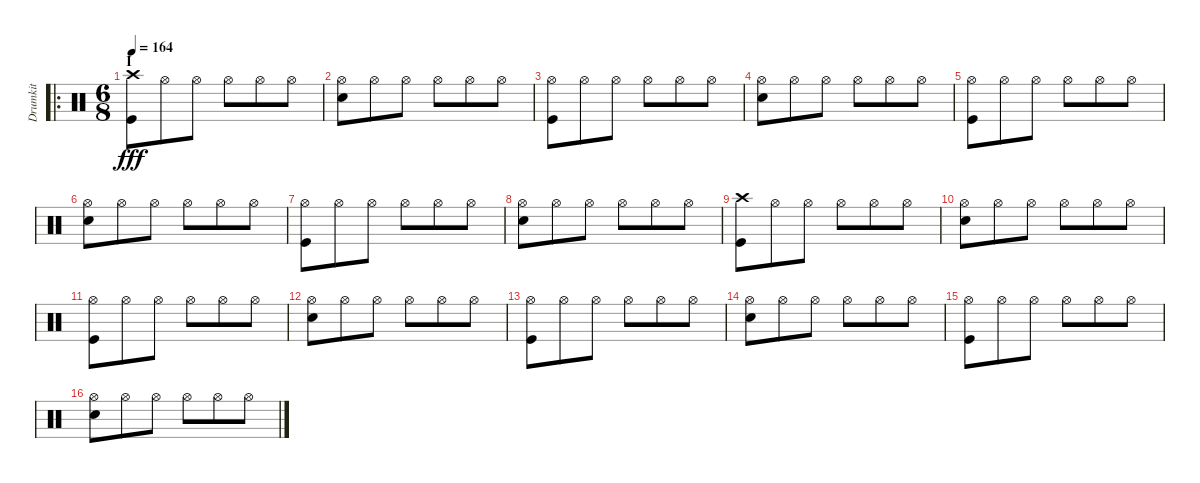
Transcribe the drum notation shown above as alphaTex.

\track ("Drumkit" "Drumkit") {instrument percussion}
\staff {score}
\articulation defaults
\ro
\ts (6 8)
\section ("" "I")
\tempo 164
\clef neutral
\ks c
("Kick (hit)" "Crash high (hit)").8{dy fff} "Hi-Hat (open)".8 "Hi-Hat (open)".8 "Hi-Hat (open)".8 "Hi-Hat (open)".8 "Hi-Hat (open)".8 |
("Hi-Hat (open)" "Snare (hit) 2").8 "Hi-Hat (open)".8 "Hi-Hat (open)".8 "Hi-Hat (open)".8 "Hi-Hat (open)".8 "Hi-Hat (open)".8 |
("Hi-Hat (open)" "Kick (hit)").8 "Hi-Hat (open)".8 "Hi-Hat (open)".8 "Hi-Hat (open)".8 "Hi-Hat (open)".8 "Hi-Hat (open)".8 |
("Hi-Hat (open)" "Snare (hit) 2").8 "Hi-Hat (open)".8 "Hi-Hat (open)".8 "Hi-Hat (open)".8 "Hi-Hat (open)".8 "Hi-Hat (open)".8 |
("Hi-Hat (open)" "Kick (hit)").8 "Hi-Hat (open)".8 "Hi-Hat (open)".8 "Hi-Hat (open)".8 "Hi-Hat (open)".8 "Hi-Hat (open)".8 |
("Hi-Hat (open)" "Snare (hit) 2").8 "Hi-Hat (open)".8 "Hi-Hat (open)".8 "Hi-Hat (open)".8 "Hi-Hat (open)".8 "Hi-Hat (open)".8 |
("Hi-Hat (open)" "Kick (hit)").8 "Hi-Hat (open)".8 "Hi-Hat (open)".8 "Hi-Hat (open)".8 "Hi-Hat (open)".8 "Hi-Hat (open)".8 |
("Hi-Hat (open)" "Snare (hit) 2").8 "Hi-Hat (open)".8 "Hi-Hat (open)".8 "Hi-Hat (open)".8 "Hi-Hat (open)".8 "Hi-Hat (open)".8 |
("Kick (hit)" "Crash high (hit)").8 "Hi-Hat (open)".8 "Hi-Hat (open)".8 "Hi-Hat (open)".8 "Hi-Hat (open)".8 "Hi-Hat (open)".8 |
("Hi-Hat (open)" "Snare (hit) 2").8 "Hi-Hat (open)".8 "Hi-Hat (open)".8 "Hi-Hat (open)".8 "Hi-Hat (open)".8 "Hi-Hat (open)".8 |
("Hi-Hat (open)" "Kick (hit)").8 "Hi-Hat (open)".8 "Hi-Hat (open)".8 "Hi-Hat (open)".8 "Hi-Hat (open)".8 "Hi-Hat (open)".8 |
("Hi-Hat (open)" "Snare (hit) 2").8 "Hi-Hat (open)".8 "Hi-Hat (open)".8 "Hi-Hat (open)".8 "Hi-Hat (open)".8 "Hi-Hat (open)".8 |
("Hi-Hat (open)" "Kick (hit)").8 "Hi-Hat (open)".8 "Hi-Hat (open)".8 "Hi-Hat (open)".8 "Hi-Hat (open)".8 "Hi-Hat (open)".8 |
("Hi-Hat (open)" "Snare (hit) 2").8 "Hi-Hat (open)".8 "Hi-Hat (open)".8 "Hi-Hat (open)".8 "Hi-Hat (open)".8 "Hi-Hat (open)".8 |
("Hi-Hat (open)" "Kick (hit)").8 "Hi-Hat (open)".8 "Hi-Hat (open)".8 "Hi-Hat (open)".8 "Hi-Hat (open)".8 "Hi-Hat (open)".8 |
("Hi-Hat (open)" "Snare (hit) 2").8 "Hi-Hat (open)".8 "Hi-Hat (open)".8 "Hi-Hat (open)".8 "Hi-Hat (open)".8 "Hi-Hat (open)".8
